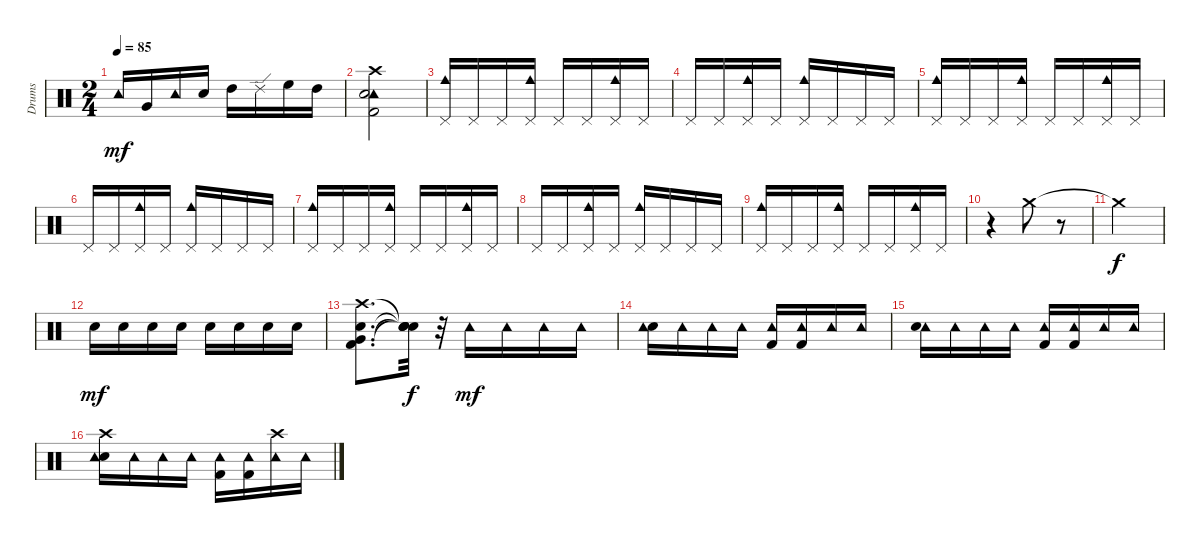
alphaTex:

\track ("Drums" "Drums") {instrument percussion}
\staff {score}
\articulation defaults
\ts (2 4)
\tempo 85
\clef neutral
\ks c "Tambourine (hit)".16{dy mf} "Very Low Tom (hit)".16 "Tambourine (hit)".16 "Snare (hit) 2".16 "High Tom (hit)".16 "Ride (edge) 2".16 "High Floor Tom (hit)".16 "High Tom (hit)".16
|
("Kick (hit) 2" "Tambourine (hit)" "Crash high (hit)" "Snare (hit) 2").2 |
("Pedal Hi-Hat (hit)" "Cowbell medium (hit)").16 "Pedal Hi-Hat (hit)".16 "Pedal Hi-Hat (hit)".16 ("Pedal Hi-Hat (hit)" "Cowbell medium (hit)").16 "Pedal Hi-Hat (hit)".16 "Pedal Hi-Hat (hit)".16 ("Pedal Hi-Hat (hit)" "Cowbell medium (hit)").16 "Pedal Hi-Hat (hit)".16 |
"Pedal Hi-Hat (hit)".16 "Pedal Hi-Hat (hit)".16 ("Pedal Hi-Hat (hit)" "Cowbell medium (hit)").16 "Pedal Hi-Hat (hit)".16 ("Pedal Hi-Hat (hit)" "Cowbell medium (hit)").16 "Pedal Hi-Hat (hit)".16 "Pedal Hi-Hat (hit)".16 "Pedal Hi-Hat (hit)".16 |
("Pedal Hi-Hat (hit)" "Cowbell medium (hit)").16 "Pedal Hi-Hat (hit)".16 "Pedal Hi-Hat (hit)".16 ("Pedal Hi-Hat (hit)" "Cowbell medium (hit)").16 "Pedal Hi-Hat (hit)".16 "Pedal Hi-Hat (hit)".16 ("Pedal Hi-Hat (hit)" "Cowbell medium (hit)").16 "Pedal Hi-Hat (hit)".16 |
"Pedal Hi-Hat (hit)".16 "Pedal Hi-Hat (hit)".16 ("Pedal Hi-Hat (hit)" "Cowbell medium (hit)").16 "Pedal Hi-Hat (hit)".16 ("Pedal Hi-Hat (hit)" "Cowbell medium (hit)").16 "Pedal Hi-Hat (hit)".16 "Pedal Hi-Hat (hit)".16 "Pedal Hi-Hat (hit)".16 |
("Pedal Hi-Hat (hit)" "Cowbell medium (hit)").16 "Pedal Hi-Hat (hit)".16 "Pedal Hi-Hat (hit)".16 ("Pedal Hi-Hat (hit)" "Cowbell medium (hit)").16 "Pedal Hi-Hat (hit)".16 "Pedal Hi-Hat (hit)".16 ("Pedal Hi-Hat (hit)" "Cowbell medium (hit)").16 "Pedal Hi-Hat (hit)".16 |
"Pedal Hi-Hat (hit)".16 "Pedal Hi-Hat (hit)".16 ("Pedal Hi-Hat (hit)" "Cowbell medium (hit)").16 "Pedal Hi-Hat (hit)".16 ("Pedal Hi-Hat (hit)" "Cowbell medium (hit)").16 "Pedal Hi-Hat (hit)".16 "Pedal Hi-Hat (hit)".16 "Pedal Hi-Hat (hit)".16 |
("Pedal Hi-Hat (hit)" "Cowbell medium (hit)").16 "Pedal Hi-Hat (hit)".16 "Pedal Hi-Hat (hit)".16 ("Pedal Hi-Hat (hit)" "Cowbell medium (hit)").16 "Pedal Hi-Hat (hit)".16 "Pedal Hi-Hat (hit)".16 ("Pedal Hi-Hat (hit)" "Cowbell medium (hit)").16 "Pedal Hi-Hat (hit)".16 |
r.4 "Crash medium (hit)".8 r.8 |
"Crash medium (hit)"{t}.2{dy f} |
"Snare (hit) 2".16{dy mf} "Snare (hit) 2".16 "Snare (hit) 2".16 "Snare (hit) 2".16 "Snare (hit) 2".16 "Snare (hit) 2".16 "Snare (hit) 2".16 "Snare (hit) 2".16 |
("Crash high (hit)" "Very Low Tom (hit)" "Snare (hit) 2" "Kick (hit) 2").8{d} ("Snare (hit)"{t} "Snare (hit)"{t} "Snare (hit)"{t} "Snare (hit)"{t}).32{dy f} r.32 "Tambourine (hit)".16{dy mf} "Tambourine (hit)".16 "Tambourine (hit)".16 "Tambourine (hit)".16 |
("Snare (hit) 2" "Tambourine (hit)").16 "Tambourine (hit)".16 "Tambourine (hit)".16 "Tambourine (hit)".16 ("Tambourine (hit)" "Kick (hit) 2").16 ("Kick (hit) 2" "Tambourine (hit)").16 "Tambourine (hit)".16 "Tambourine (hit)".16 |
("Tambourine (hit)" "Snare (hit) 2").16 "Tambourine (hit)".16 "Tambourine (hit)".16 "Tambourine (hit)".16 ("Kick (hit) 2" "Tambourine (hit)").16 ("Tambourine (hit)" "Kick (hit) 2").16 "Tambourine (hit)".16 "Tambourine (hit)".16 |
("Crash high (hit)" "Snare (hit) 2" "Tambourine (hit)").16 "Tambourine (hit)".16 "Tambourine (hit)".16 "Tambourine (hit)".16 ("Tambourine (hit)" "Kick (hit) 2").16 ("Tambourine (hit)" "Kick (hit) 2").16 ("Crash high (hit)" "Tambourine (hit)").16 "Tambourine (hit)".16
